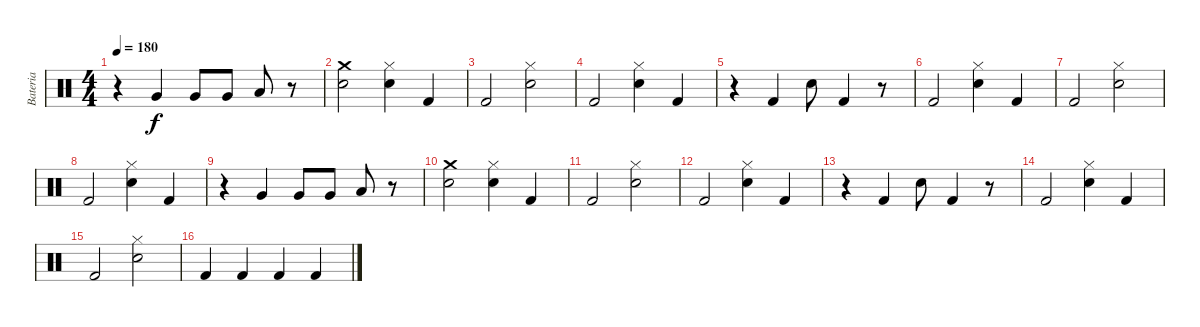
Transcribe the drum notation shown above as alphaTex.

\track ("Bateria" "Bateria") {instrument percussion}
\staff {score}
\articulation defaults
\ts (4 4)
\tempo 180
\clef neutral
\ks c
r.4{dy f} "Very Low Tom (hit)".4 "Very Low Tom (hit)".8 "Very Low Tom (hit)".8 "Low Floor Tom (hit)".8 r.8 |
("Crash medium (hit)" "Electric Snare (hit)").2 ("Electric Snare (hit)" "Hi-Hat (closed)").4 "Kick (hit) 2".4 |
"Kick (hit) 2".2 ("Electric Snare (hit)" "Hi-Hat (closed)").2 |
"Kick (hit) 2".2 ("Electric Snare (hit)" "Hi-Hat (closed)").4 "Kick (hit) 2".4 |
r.4 "Kick (hit) 2".4 "Electric Snare (hit)".8 "Kick (hit) 2".4 r.8 |
"Kick (hit) 2".2 ("Electric Snare (hit)" "Hi-Hat (closed)").4 "Kick (hit) 2".4 |
"Kick (hit) 2".2 ("Electric Snare (hit)" "Hi-Hat (closed)").2 |
"Kick (hit) 2".2 ("Electric Snare (hit)" "Hi-Hat (closed)").4 "Kick (hit) 2".4 |
r.4 "Very Low Tom (hit)".4 "Very Low Tom (hit)".8 "Very Low Tom (hit)".8 "Low Floor Tom (hit)".8 r.8 |
("Crash medium (hit)" "Electric Snare (hit)").2 ("Electric Snare (hit)" "Hi-Hat (closed)").4 "Kick (hit) 2".4 |
"Kick (hit) 2".2 ("Electric Snare (hit)" "Hi-Hat (closed)").2 |
"Kick (hit) 2".2 ("Electric Snare (hit)" "Hi-Hat (closed)").4 "Kick (hit) 2".4 |
r.4 "Kick (hit) 2".4 "Electric Snare (hit)".8 "Kick (hit) 2".4 r.8 |
"Kick (hit) 2".2 ("Electric Snare (hit)" "Hi-Hat (closed)").4 "Kick (hit) 2".4 |
"Kick (hit) 2".2 ("Electric Snare (hit)" "Hi-Hat (closed)").2 |
"Kick (hit) 2".4 "Kick (hit) 2".4 "Kick (hit) 2".4 "Kick (hit) 2".4
